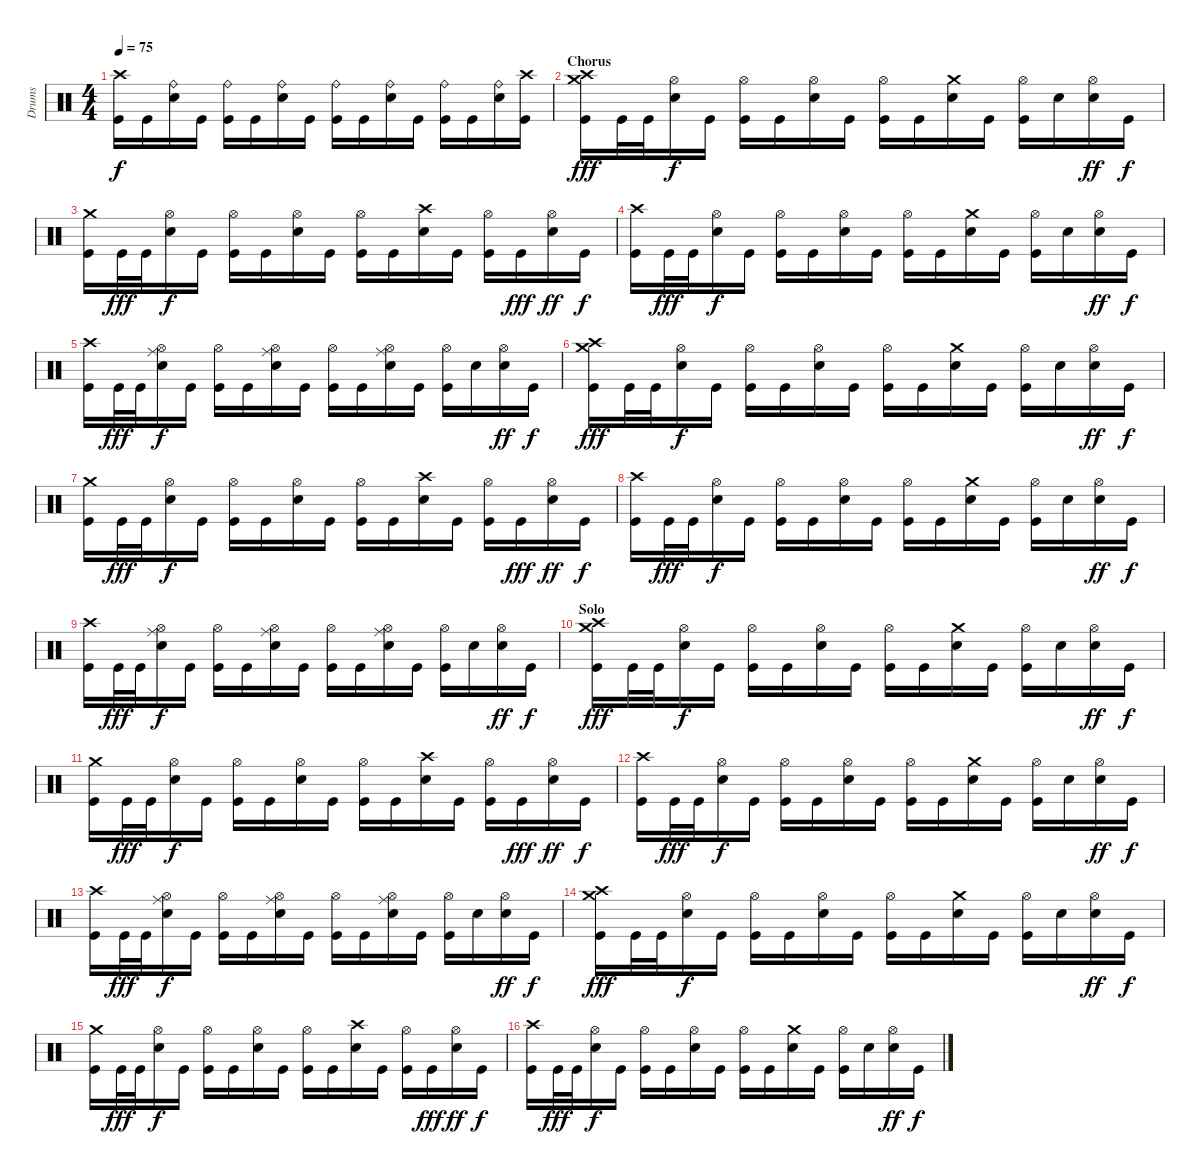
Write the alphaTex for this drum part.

\track ("Drums" "Drums") {instrument percussion}
\staff {score}
\articulation defaults
\ts (4 4)
\tempo 75
\clef neutral
\ks c
("Crash high (hit)" "Kick (hit)").16{dy f} "Kick (hit)".16 ("Ride (bell)" "Electric Snare (hit)").16 "Kick (hit)".16 ("Ride (bell)" "Kick (hit)").16 "Kick (hit)".16 ("Ride (bell)" "Electric Snare (hit)").16 "Kick (hit)".16 ("Ride (bell)" "Kick (hit)").16 "Kick (hit)".16 ("Ride (bell)" "Electric Snare (hit)").16 "Kick (hit)".16 ("Ride (bell)" "Kick (hit)").16 "Kick (hit)".16 ("Ride (bell)" "Electric Snare (hit)").16 ("Crash high (hit)" "Kick (hit)").16 |
\section ("" "Chorus")
("Crash medium (hit)" "Crash high (hit)" "Kick (hit)").16{dy fff} "Kick (hit)".32 "Kick (hit)".32 ("Hi-Hat (open)" "Electric Snare (hit)").16{dy f} "Kick (hit)".16 ("Hi-Hat (open)" "Kick (hit)").16 "Kick (hit)".16 ("Hi-Hat (open)" "Electric Snare (hit)").16 "Kick (hit)".16 ("Hi-Hat (open)" "Kick (hit)").16 "Kick (hit)".16 ("Crash medium (hit)" "Electric Snare (hit)").16 "Kick (hit)".16 ("Hi-Hat (open)" "Kick (hit)").16 "Electric Snare (hit)".16 ("Hi-Hat (open)" "Electric Snare (hit)").16{dy ff} "Kick (hit)".16{dy f} |
("Crash medium (hit)" "Kick (hit)").16 "Kick (hit)".32{dy fff} "Kick (hit)".32 ("Hi-Hat (open)" "Electric Snare (hit)").16{dy f} "Kick (hit)".16 ("Hi-Hat (open)" "Kick (hit)").16 "Kick (hit)".16 ("Hi-Hat (open)" "Electric Snare (hit)").16 "Kick (hit)".16 ("Hi-Hat (open)" "Kick (hit)").16 "Kick (hit)".16 ("Crash high (hit)" "Electric Snare (hit)").16 "Kick (hit)".16 ("Hi-Hat (open)" "Kick (hit)").16 "Kick (hit)".16{dy fff} ("Hi-Hat (open)" "Electric Snare (hit)").16{dy ff} "Kick (hit)".16{dy f} |
("Crash high (hit)" "Kick (hit)").16 "Kick (hit)".32{dy fff} "Kick (hit)".32 ("Hi-Hat (open)" "Electric Snare (hit)").16{dy f} "Kick (hit)".16 ("Hi-Hat (open)" "Kick (hit)").16 "Kick (hit)".16 ("Hi-Hat (open)" "Electric Snare (hit)").16 "Kick (hit)".16 ("Hi-Hat (open)" "Kick (hit)").16 "Kick (hit)".16 ("Crash medium (hit)" "Electric Snare (hit)").16 "Kick (hit)".16 ("Hi-Hat (open)" "Kick (hit)").16 "Electric Snare (hit)".16 ("Hi-Hat (open)" "Electric Snare (hit)").16{dy ff} "Kick (hit)".16{dy f} |
("Crash high (hit)" "Kick (hit)").16 "Kick (hit)".32{dy fff} "Kick (hit)".32 ("Hi-Hat (open)" "Ride (middle)" "Electric Snare (hit)").16{dy f} "Kick (hit)".16 ("Hi-Hat (open)" "Kick (hit)").16 "Kick (hit)".16 ("Hi-Hat (open)" "Ride (middle)" "Electric Snare (hit)").16 "Kick (hit)".16 ("Hi-Hat (open)" "Kick (hit)").16 "Kick (hit)".16 ("Hi-Hat (open)" "Ride (middle)" "Electric Snare (hit)").16 "Kick (hit)".16 ("Hi-Hat (open)" "Kick (hit)").16 "Electric Snare (hit)".16 ("Hi-Hat (open)" "Electric Snare (hit)").16{dy ff} "Kick (hit)".16{dy f} |
("Crash medium (hit)" "Crash high (hit)" "Kick (hit)").16{dy fff} "Kick (hit)".32 "Kick (hit)".32 ("Hi-Hat (open)" "Electric Snare (hit)").16{dy f} "Kick (hit)".16 ("Hi-Hat (open)" "Kick (hit)").16 "Kick (hit)".16 ("Hi-Hat (open)" "Electric Snare (hit)").16 "Kick (hit)".16 ("Hi-Hat (open)" "Kick (hit)").16 "Kick (hit)".16 ("Crash medium (hit)" "Electric Snare (hit)").16 "Kick (hit)".16 ("Hi-Hat (open)" "Kick (hit)").16 "Electric Snare (hit)".16 ("Hi-Hat (open)" "Electric Snare (hit)").16{dy ff} "Kick (hit)".16{dy f} |
("Crash medium (hit)" "Kick (hit)").16 "Kick (hit)".32{dy fff} "Kick (hit)".32 ("Hi-Hat (open)" "Electric Snare (hit)").16{dy f} "Kick (hit)".16 ("Hi-Hat (open)" "Kick (hit)").16 "Kick (hit)".16 ("Hi-Hat (open)" "Electric Snare (hit)").16 "Kick (hit)".16 ("Hi-Hat (open)" "Kick (hit)").16 "Kick (hit)".16 ("Crash high (hit)" "Electric Snare (hit)").16 "Kick (hit)".16 ("Hi-Hat (open)" "Kick (hit)").16 "Kick (hit)".16{dy fff} ("Hi-Hat (open)" "Electric Snare (hit)").16{dy ff} "Kick (hit)".16{dy f} |
("Crash high (hit)" "Kick (hit)").16 "Kick (hit)".32{dy fff} "Kick (hit)".32 ("Hi-Hat (open)" "Electric Snare (hit)").16{dy f} "Kick (hit)".16 ("Hi-Hat (open)" "Kick (hit)").16 "Kick (hit)".16 ("Hi-Hat (open)" "Electric Snare (hit)").16 "Kick (hit)".16 ("Hi-Hat (open)" "Kick (hit)").16 "Kick (hit)".16 ("Crash medium (hit)" "Electric Snare (hit)").16 "Kick (hit)".16 ("Hi-Hat (open)" "Kick (hit)").16 "Electric Snare (hit)".16 ("Hi-Hat (open)" "Electric Snare (hit)").16{dy ff} "Kick (hit)".16{dy f} |
("Crash high (hit)" "Kick (hit)").16 "Kick (hit)".32{dy fff} "Kick (hit)".32 ("Hi-Hat (open)" "Ride (middle)" "Electric Snare (hit)").16{dy f} "Kick (hit)".16 ("Hi-Hat (open)" "Kick (hit)").16 "Kick (hit)".16 ("Hi-Hat (open)" "Ride (middle)" "Electric Snare (hit)").16 "Kick (hit)".16 ("Hi-Hat (open)" "Kick (hit)").16 "Kick (hit)".16 ("Hi-Hat (open)" "Ride (middle)" "Electric Snare (hit)").16 "Kick (hit)".16 ("Hi-Hat (open)" "Kick (hit)").16 "Electric Snare (hit)".16 ("Hi-Hat (open)" "Electric Snare (hit)").16{dy ff} "Kick (hit)".16{dy f} |
\section ("" "Solo")
("Crash medium (hit)" "Crash high (hit)" "Kick (hit)").16{dy fff} "Kick (hit)".32 "Kick (hit)".32 ("Hi-Hat (open)" "Electric Snare (hit)").16{dy f} "Kick (hit)".16 ("Hi-Hat (open)" "Kick (hit)").16 "Kick (hit)".16 ("Hi-Hat (open)" "Electric Snare (hit)").16 "Kick (hit)".16 ("Hi-Hat (open)" "Kick (hit)").16 "Kick (hit)".16 ("Crash medium (hit)" "Electric Snare (hit)").16 "Kick (hit)".16 ("Hi-Hat (open)" "Kick (hit)").16 "Electric Snare (hit)".16 ("Hi-Hat (open)" "Electric Snare (hit)").16{dy ff} "Kick (hit)".16{dy f} |
("Crash medium (hit)" "Kick (hit)").16 "Kick (hit)".32{dy fff} "Kick (hit)".32 ("Hi-Hat (open)" "Electric Snare (hit)").16{dy f} "Kick (hit)".16 ("Hi-Hat (open)" "Kick (hit)").16 "Kick (hit)".16 ("Hi-Hat (open)" "Electric Snare (hit)").16 "Kick (hit)".16 ("Hi-Hat (open)" "Kick (hit)").16 "Kick (hit)".16 ("Crash high (hit)" "Electric Snare (hit)").16 "Kick (hit)".16 ("Hi-Hat (open)" "Kick (hit)").16 "Kick (hit)".16{dy fff} ("Hi-Hat (open)" "Electric Snare (hit)").16{dy ff} "Kick (hit)".16{dy f} |
("Crash high (hit)" "Kick (hit)").16 "Kick (hit)".32{dy fff} "Kick (hit)".32 ("Hi-Hat (open)" "Electric Snare (hit)").16{dy f} "Kick (hit)".16 ("Hi-Hat (open)" "Kick (hit)").16 "Kick (hit)".16 ("Hi-Hat (open)" "Electric Snare (hit)").16 "Kick (hit)".16 ("Hi-Hat (open)" "Kick (hit)").16 "Kick (hit)".16 ("Crash medium (hit)" "Electric Snare (hit)").16 "Kick (hit)".16 ("Hi-Hat (open)" "Kick (hit)").16 "Electric Snare (hit)".16 ("Hi-Hat (open)" "Electric Snare (hit)").16{dy ff} "Kick (hit)".16{dy f} |
("Crash high (hit)" "Kick (hit)").16 "Kick (hit)".32{dy fff} "Kick (hit)".32 ("Hi-Hat (open)" "Ride (middle)" "Electric Snare (hit)").16{dy f} "Kick (hit)".16 ("Hi-Hat (open)" "Kick (hit)").16 "Kick (hit)".16 ("Hi-Hat (open)" "Ride (middle)" "Electric Snare (hit)").16 "Kick (hit)".16 ("Hi-Hat (open)" "Kick (hit)").16 "Kick (hit)".16 ("Hi-Hat (open)" "Ride (middle)" "Electric Snare (hit)").16 "Kick (hit)".16 ("Hi-Hat (open)" "Kick (hit)").16 "Electric Snare (hit)".16 ("Hi-Hat (open)" "Electric Snare (hit)").16{dy ff} "Kick (hit)".16{dy f} |
("Crash medium (hit)" "Crash high (hit)" "Kick (hit)").16{dy fff} "Kick (hit)".32 "Kick (hit)".32 ("Hi-Hat (open)" "Electric Snare (hit)").16{dy f} "Kick (hit)".16 ("Hi-Hat (open)" "Kick (hit)").16 "Kick (hit)".16 ("Hi-Hat (open)" "Electric Snare (hit)").16 "Kick (hit)".16 ("Hi-Hat (open)" "Kick (hit)").16 "Kick (hit)".16 ("Crash medium (hit)" "Electric Snare (hit)").16 "Kick (hit)".16 ("Hi-Hat (open)" "Kick (hit)").16 "Electric Snare (hit)".16 ("Hi-Hat (open)" "Electric Snare (hit)").16{dy ff} "Kick (hit)".16{dy f} |
("Crash medium (hit)" "Kick (hit)").16 "Kick (hit)".32{dy fff} "Kick (hit)".32 ("Hi-Hat (open)" "Electric Snare (hit)").16{dy f} "Kick (hit)".16 ("Hi-Hat (open)" "Kick (hit)").16 "Kick (hit)".16 ("Hi-Hat (open)" "Electric Snare (hit)").16 "Kick (hit)".16 ("Hi-Hat (open)" "Kick (hit)").16 "Kick (hit)".16 ("Crash high (hit)" "Electric Snare (hit)").16 "Kick (hit)".16 ("Hi-Hat (open)" "Kick (hit)").16 "Kick (hit)".16{dy fff} ("Hi-Hat (open)" "Electric Snare (hit)").16{dy ff} "Kick (hit)".16{dy f} |
("Crash high (hit)" "Kick (hit)").16 "Kick (hit)".32{dy fff} "Kick (hit)".32 ("Hi-Hat (open)" "Electric Snare (hit)").16{dy f} "Kick (hit)".16 ("Hi-Hat (open)" "Kick (hit)").16 "Kick (hit)".16 ("Hi-Hat (open)" "Electric Snare (hit)").16 "Kick (hit)".16 ("Hi-Hat (open)" "Kick (hit)").16 "Kick (hit)".16 ("Crash medium (hit)" "Electric Snare (hit)").16 "Kick (hit)".16 ("Hi-Hat (open)" "Kick (hit)").16 "Electric Snare (hit)".16 ("Hi-Hat (open)" "Electric Snare (hit)").16{dy ff} "Kick (hit)".16{dy f}
